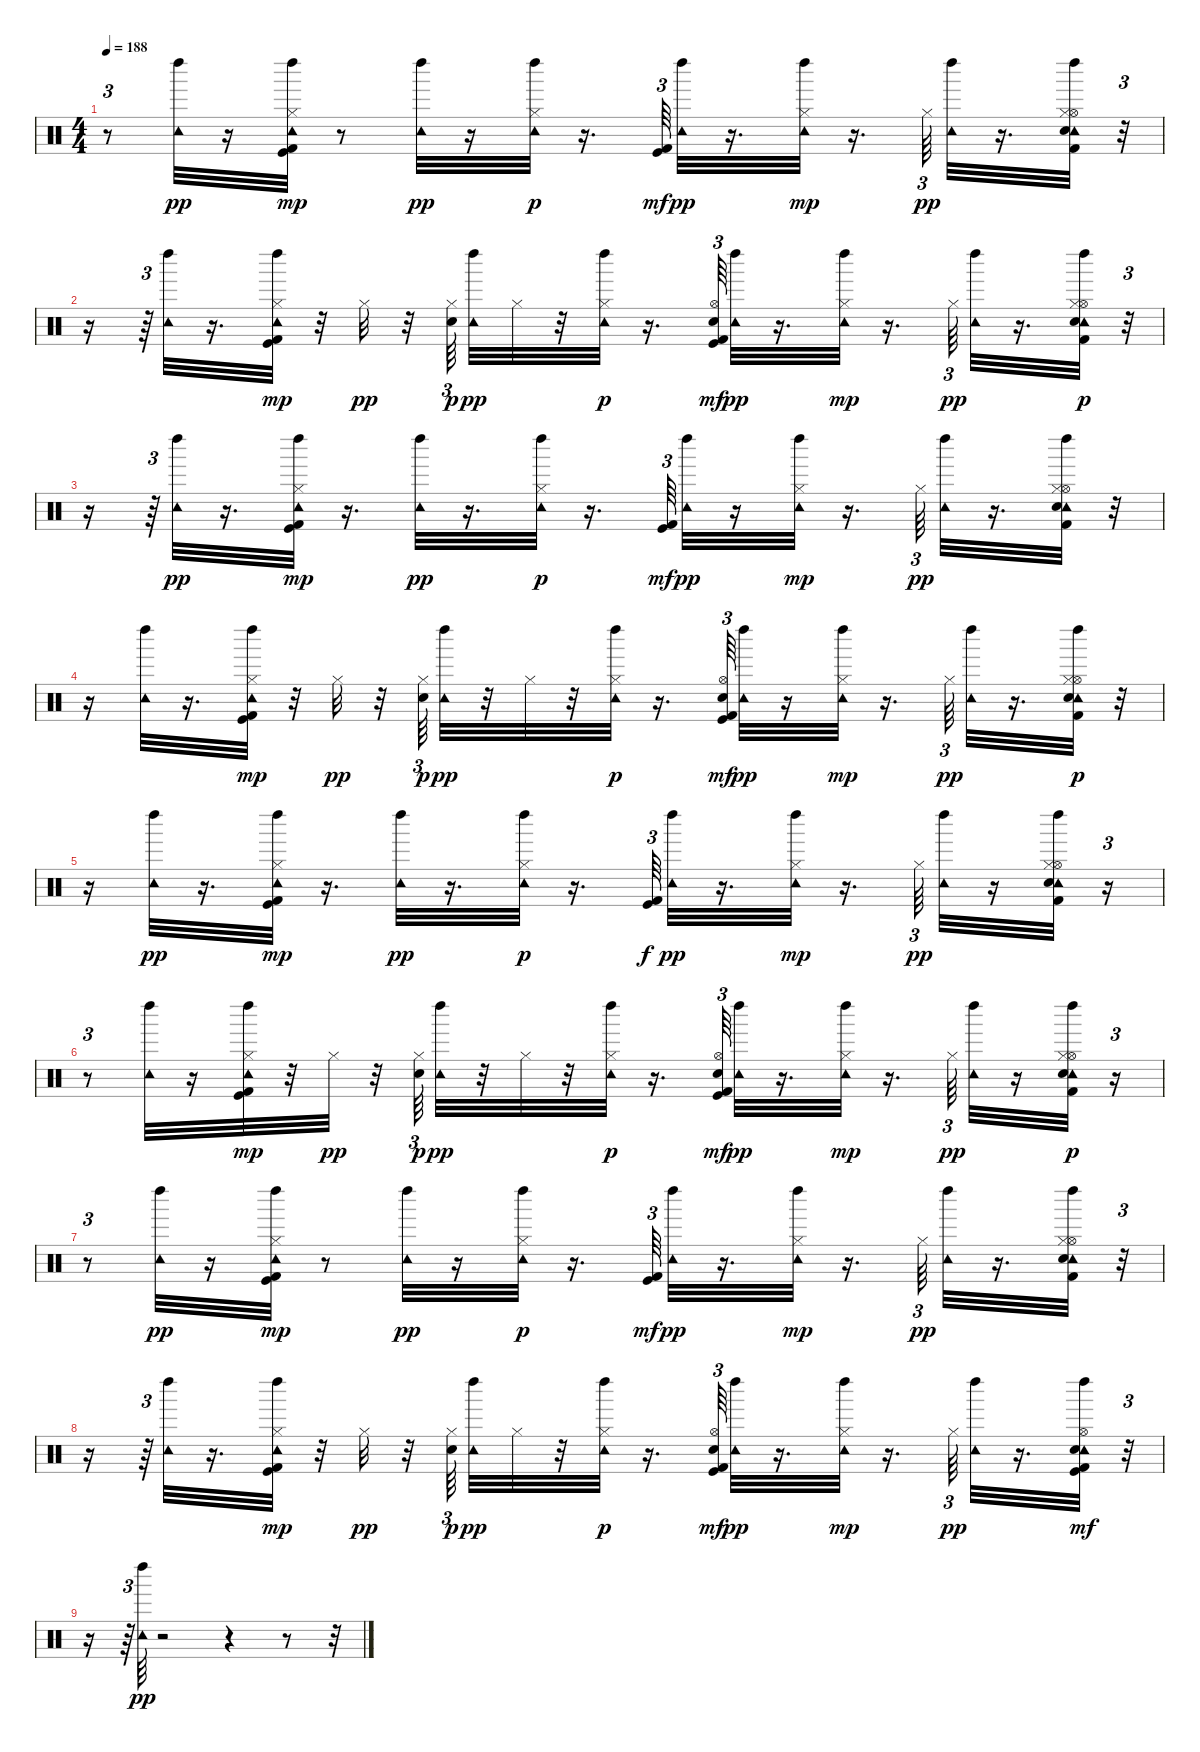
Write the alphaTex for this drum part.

\track "" {instrument percussion}
\staff {score}
\articulation defaults
\ts (4 4)
\tempo 188
\clef neutral
\ks c
r.8{tu (3 2) dy p} ("Tambourine (hit)" "Left Maraca (hit)").32{dy pp} r.16 ("Kick (hit) 2" "Hi-Hat (closed)" "Tambourine (hit)" "Left Maraca (hit)" "Kick (hit)").32{dy mp} r.8 ("Tambourine (hit)" "Left Maraca (hit)").32{dy pp} r.16 ("Hi-Hat (closed)" "Tambourine (hit)" "Left Maraca (hit)").32{dy p} r.16{d} ("Kick (hit) 2" "Kick (hit)").64{tu (3 2) dy mf} ("Tambourine (hit)" "Left Maraca (hit)").32{dy pp} r.16{d} ("Hi-Hat (closed)" "Tambourine (hit)" "Left Maraca (hit)").32{dy mp} r.16{d} "Hi-Hat (closed)".64{tu (3 2) dy pp} ("Tambourine (hit)" "Left Maraca (hit)").32 r.16{d} ("Kick (hit) 2" "Hi-Hat (open)" "Tambourine (hit)" "Left Maraca (hit)" "Electric Snare (hit)" "Hi-Hat (closed)").32 r.32{tu (3 2)} |
r.16 r.64{tu (3 2)} ("Tambourine (hit)" "Left Maraca (hit)").32 r.16{d} ("Kick (hit) 2" "Hi-Hat (closed)" "Tambourine (hit)" "Left Maraca (hit)" "Kick (hit)").32{dy mp} r.32 "Hi-Hat (closed)".32{dy pp} r.32 ("Electric Snare (hit)" "Hi-Hat (closed)").64{tu (3 2) dy p beam splitsecondary} ("Tambourine (hit)" "Left Maraca (hit)").32{dy pp} "Hi-Hat (closed)".32 r.32 ("Hi-Hat (closed)" "Tambourine (hit)" "Left Maraca (hit)").32{dy p} r.16{d} ("Kick (hit) 2" "Hi-Hat (open)" "Electric Snare (hit)" "Kick (hit)").64{tu (3 2) dy mf} ("Tambourine (hit)" "Left Maraca (hit)").32{dy pp} r.16{d} ("Hi-Hat (closed)" "Tambourine (hit)" "Left Maraca (hit)").32{dy mp} r.16{d} "Hi-Hat (closed)".64{tu (3 2) dy pp} ("Tambourine (hit)" "Left Maraca (hit)").32 r.16{d} ("Kick (hit) 2" "Hi-Hat (open)" "Tambourine (hit)" "Left Maraca (hit)" "Electric Snare (hit)" "Hi-Hat (closed)").32{dy p} r.32{tu (3 2)} |
r.16 r.64{tu (3 2)} ("Tambourine (hit)" "Left Maraca (hit)").32{dy pp} r.16{d} ("Kick (hit) 2" "Hi-Hat (closed)" "Tambourine (hit)" "Left Maraca (hit)" "Kick (hit)").32{dy mp} r.16{d} ("Tambourine (hit)" "Left Maraca (hit)").32{dy pp} r.16{d} ("Hi-Hat (closed)" "Tambourine (hit)" "Left Maraca (hit)").32{dy p} r.16{d} ("Kick (hit) 2" "Kick (hit)").64{tu (3 2) dy mf} ("Tambourine (hit)" "Left Maraca (hit)").32{dy pp} r.16 ("Hi-Hat (closed)" "Tambourine (hit)" "Left Maraca (hit)").32{dy mp} r.16{d} "Hi-Hat (closed)".64{tu (3 2) dy pp} ("Tambourine (hit)" "Left Maraca (hit)").32 r.16{d} ("Kick (hit) 2" "Hi-Hat (open)" "Tambourine (hit)" "Left Maraca (hit)" "Electric Snare (hit)" "Hi-Hat (closed)").32 r.32 |
r.16 ("Tambourine (hit)" "Left Maraca (hit)").32 r.16{d} ("Kick (hit) 2" "Hi-Hat (closed)" "Tambourine (hit)" "Left Maraca (hit)" "Kick (hit)").32{dy mp} r.32 "Hi-Hat (closed)".32{dy pp} r.32 ("Electric Snare (hit)" "Hi-Hat (closed)").64{tu (3 2) dy p} ("Tambourine (hit)" "Left Maraca (hit)").32{dy pp} r.32 "Hi-Hat (closed)".32 r.32 ("Hi-Hat (closed)" "Tambourine (hit)" "Left Maraca (hit)").32{dy p} r.16{d} ("Kick (hit) 2" "Hi-Hat (open)" "Electric Snare (hit)" "Kick (hit)").64{tu (3 2) dy mf} ("Tambourine (hit)" "Left Maraca (hit)").32{dy pp} r.16 ("Hi-Hat (closed)" "Tambourine (hit)" "Left Maraca (hit)").32{dy mp} r.16{d} "Hi-Hat (closed)".64{tu (3 2) dy pp} ("Tambourine (hit)" "Left Maraca (hit)").32 r.16{d} ("Kick (hit) 2" "Hi-Hat (open)" "Tambourine (hit)" "Left Maraca (hit)" "Electric Snare (hit)" "Hi-Hat (closed)").32{dy p} r.32 |
r.16 ("Tambourine (hit)" "Left Maraca (hit)").32{dy pp} r.16{d} ("Kick (hit) 2" "Hi-Hat (closed)" "Tambourine (hit)" "Left Maraca (hit)" "Kick (hit)").32{dy mp} r.16{d} ("Tambourine (hit)" "Left Maraca (hit)").32{dy pp} r.16{d} ("Hi-Hat (closed)" "Tambourine (hit)" "Left Maraca (hit)").32{dy p} r.16{d} ("Kick (hit) 2" "Kick (hit)").64{tu (3 2) dy f} ("Tambourine (hit)" "Left Maraca (hit)").32{dy pp} r.16{d} ("Hi-Hat (closed)" "Tambourine (hit)" "Left Maraca (hit)").32{dy mp} r.16{d} "Hi-Hat (closed)".64{tu (3 2) dy pp} ("Tambourine (hit)" "Left Maraca (hit)").32 r.16 ("Kick (hit) 2" "Hi-Hat (open)" "Tambourine (hit)" "Left Maraca (hit)" "Electric Snare (hit)" "Hi-Hat (closed)").32 r.16{tu (3 2)} |
r.8{tu (3 2)} ("Tambourine (hit)" "Left Maraca (hit)").32 r.16 ("Kick (hit) 2" "Hi-Hat (closed)" "Tambourine (hit)" "Left Maraca (hit)" "Kick (hit)").32{dy mp} r.32 "Hi-Hat (closed)".32{dy pp} r.32 ("Electric Snare (hit)" "Hi-Hat (closed)").64{tu (3 2) dy p} ("Tambourine (hit)" "Left Maraca (hit)").32{dy pp} r.32 "Hi-Hat (closed)".32 r.32 ("Hi-Hat (closed)" "Tambourine (hit)" "Left Maraca (hit)").32{dy p} r.16{d} ("Kick (hit) 2" "Hi-Hat (open)" "Electric Snare (hit)" "Kick (hit)").64{tu (3 2) dy mf} ("Tambourine (hit)" "Left Maraca (hit)").32{dy pp} r.16{d} ("Hi-Hat (closed)" "Tambourine (hit)" "Left Maraca (hit)").32{dy mp} r.16{d} "Hi-Hat (closed)".64{tu (3 2) dy pp} ("Tambourine (hit)" "Left Maraca (hit)").32 r.16 ("Kick (hit) 2" "Hi-Hat (open)" "Tambourine (hit)" "Left Maraca (hit)" "Electric Snare (hit)" "Hi-Hat (closed)").32{dy p} r.16{tu (3 2)} |
r.8{tu (3 2)} ("Tambourine (hit)" "Left Maraca (hit)").32{dy pp} r.16 ("Kick (hit) 2" "Hi-Hat (closed)" "Tambourine (hit)" "Left Maraca (hit)" "Kick (hit)").32{dy mp} r.8 ("Tambourine (hit)" "Left Maraca (hit)").32{dy pp} r.16 ("Hi-Hat (closed)" "Tambourine (hit)" "Left Maraca (hit)").32{dy p} r.16{d} ("Kick (hit) 2" "Kick (hit)").64{tu (3 2) dy mf} ("Tambourine (hit)" "Left Maraca (hit)").32{dy pp} r.16{d} ("Hi-Hat (closed)" "Tambourine (hit)" "Left Maraca (hit)").32{dy mp} r.16{d} "Hi-Hat (closed)".64{tu (3 2) dy pp} ("Tambourine (hit)" "Left Maraca (hit)").32 r.16{d} ("Kick (hit) 2" "Hi-Hat (open)" "Tambourine (hit)" "Left Maraca (hit)" "Electric Snare (hit)" "Hi-Hat (closed)").32 r.32{tu (3 2)} |
r.16 r.64{tu (3 2)} ("Tambourine (hit)" "Left Maraca (hit)").32 r.16{d} ("Kick (hit) 2" "Hi-Hat (closed)" "Tambourine (hit)" "Left Maraca (hit)" "Kick (hit)").32{dy mp} r.32 "Hi-Hat (closed)".32{dy pp} r.32 ("Electric Snare (hit)" "Hi-Hat (closed)").64{tu (3 2) dy p beam splitsecondary} ("Tambourine (hit)" "Left Maraca (hit)").32{dy pp} "Hi-Hat (closed)".32 r.32 ("Hi-Hat (closed)" "Tambourine (hit)" "Left Maraca (hit)").32{dy p} r.16{d} ("Kick (hit) 2" "Hi-Hat (open)" "Electric Snare (hit)" "Kick (hit)").64{tu (3 2) dy mf} ("Tambourine (hit)" "Left Maraca (hit)").32{dy pp} r.16{d} ("Hi-Hat (closed)" "Tambourine (hit)" "Left Maraca (hit)").32{dy mp} r.16{d} "Hi-Hat (closed)".64{tu (3 2) dy pp} ("Tambourine (hit)" "Left Maraca (hit)").32 r.16{d} ("Kick (hit) 2" "Hi-Hat (open)" "Tambourine (hit)" "Left Maraca (hit)" "Electric Snare (hit)" "Kick (hit)").32{dy mf} r.32{tu (3 2)} |
r.16 r.64{tu (3 2)} ("Tambourine (hit)" "Left Maraca (hit)").64{dy pp} r.2 r.4 r.8 r.32
